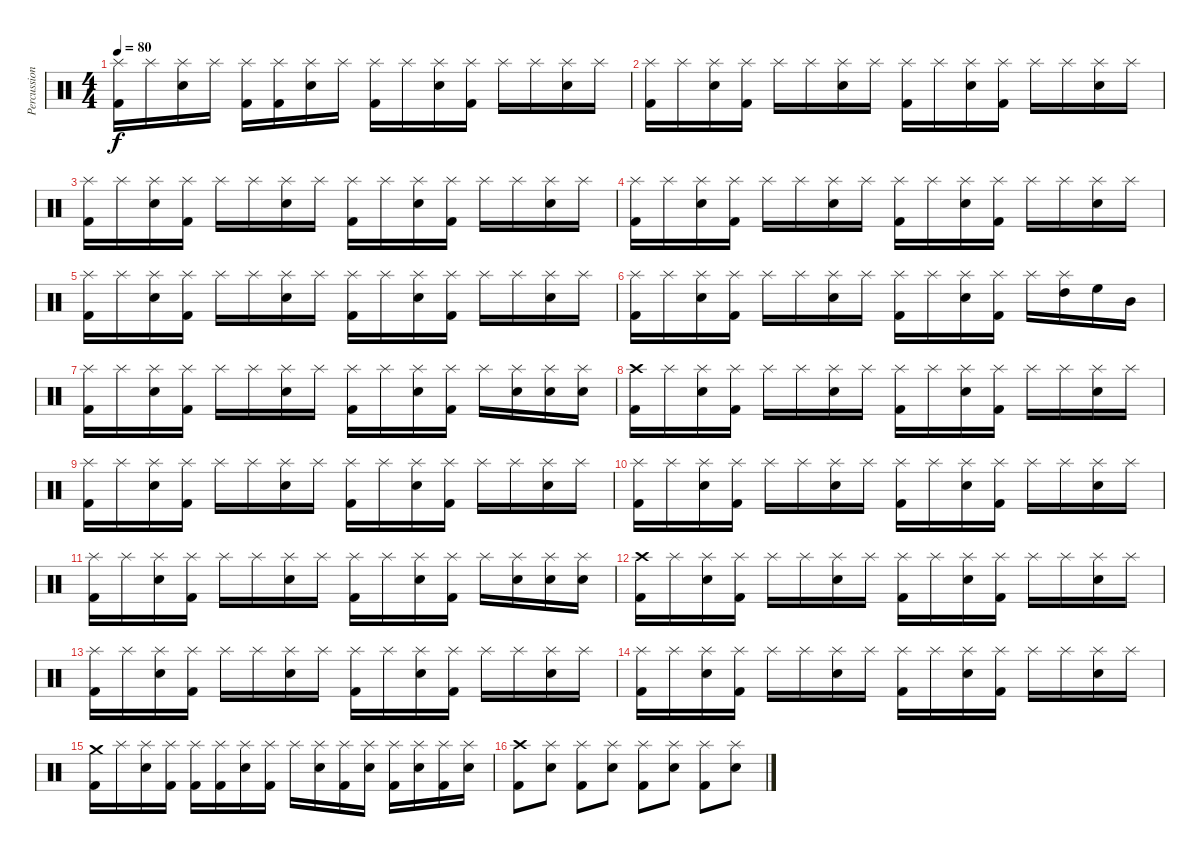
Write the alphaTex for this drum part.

\track ("Percussion" "Percussion") {instrument percussion}
\staff {score}
\articulation defaults
\ts (4 4)
\tempo 80
\clef neutral
\ks c
("Kick (hit) 2" "Splash (hit)").16{dy f} "Splash (hit)".16 ("Snare (hit) 2" "Splash (hit)").16 "Splash (hit)".16 ("Kick (hit) 2" "Splash (hit)").16 ("Kick (hit) 2" "Splash (hit)").16 ("Snare (hit) 2" "Splash (hit)").16 "Splash (hit)".16 ("Kick (hit) 2" "Splash (hit)").16 "Splash (hit)".16 ("Snare (hit) 2" "Splash (hit)").16 ("Kick (hit) 2" "Splash (hit)").16 "Splash (hit)".16 "Splash (hit)".16 ("Snare (hit) 2" "Splash (hit)").16 "Splash (hit)".16 |
("Kick (hit) 2" "Splash (hit)").16 "Splash (hit)".16 ("Snare (hit) 2" "Splash (hit)").16 ("Kick (hit) 2" "Splash (hit)").16 "Splash (hit)".16 "Splash (hit)".16 ("Snare (hit) 2" "Splash (hit)").16 "Splash (hit)".16 ("Kick (hit) 2" "Splash (hit)").16 "Splash (hit)".16 ("Snare (hit) 2" "Splash (hit)").16 ("Kick (hit) 2" "Splash (hit)").16 "Splash (hit)".16 "Splash (hit)".16 ("Snare (hit) 2" "Splash (hit)").16 "Splash (hit)".16 |
("Kick (hit) 2" "Splash (hit)").16 "Splash (hit)".16 ("Snare (hit) 2" "Splash (hit)").16 ("Kick (hit) 2" "Splash (hit)").16 "Splash (hit)".16 "Splash (hit)".16 ("Snare (hit) 2" "Splash (hit)").16 "Splash (hit)".16 ("Kick (hit) 2" "Splash (hit)").16 "Splash (hit)".16 ("Snare (hit) 2" "Splash (hit)").16 ("Kick (hit) 2" "Splash (hit)").16 "Splash (hit)".16 "Splash (hit)".16 ("Snare (hit) 2" "Splash (hit)").16 "Splash (hit)".16 |
("Kick (hit) 2" "Splash (hit)").16 "Splash (hit)".16 ("Snare (hit) 2" "Splash (hit)").16 ("Kick (hit) 2" "Splash (hit)").16 "Splash (hit)".16 "Splash (hit)".16 ("Snare (hit) 2" "Splash (hit)").16 "Splash (hit)".16 ("Kick (hit) 2" "Splash (hit)").16 "Splash (hit)".16 ("Snare (hit) 2" "Splash (hit)").16 ("Kick (hit) 2" "Splash (hit)").16 "Splash (hit)".16 "Splash (hit)".16 ("Snare (hit) 2" "Splash (hit)").16 "Splash (hit)".16 |
("Kick (hit) 2" "Splash (hit)").16 "Splash (hit)".16 ("Snare (hit) 2" "Splash (hit)").16 ("Kick (hit) 2" "Splash (hit)").16 "Splash (hit)".16 "Splash (hit)".16 ("Snare (hit) 2" "Splash (hit)").16 "Splash (hit)".16 ("Kick (hit) 2" "Splash (hit)").16 "Splash (hit)".16 ("Snare (hit) 2" "Splash (hit)").16 ("Kick (hit) 2" "Splash (hit)").16 "Splash (hit)".16 "Splash (hit)".16 ("Snare (hit) 2" "Splash (hit)").16 "Splash (hit)".16 |
("Kick (hit) 2" "Splash (hit)").16 "Splash (hit)".16 ("Snare (hit) 2" "Splash (hit)").16 ("Kick (hit) 2" "Splash (hit)").16 "Splash (hit)".16 "Splash (hit)".16 ("Snare (hit) 2" "Splash (hit)").16 "Splash (hit)".16 ("Kick (hit) 2" "Splash (hit)").16 "Splash (hit)".16 ("Snare (hit) 2" "Splash (hit)").16 ("Kick (hit) 2" "Splash (hit)").16 "Splash (hit)".16 ("High Tom (hit)" "Splash (hit)").16 "High Floor Tom (hit)".16 "Mid Tom (hit)".16 |
("Kick (hit) 2" "Splash (hit)").16 "Splash (hit)".16 ("Snare (hit) 2" "Splash (hit)").16 ("Kick (hit) 2" "Splash (hit)").16 "Splash (hit)".16 "Splash (hit)".16 ("Snare (hit) 2" "Splash (hit)").16 "Splash (hit)".16 ("Kick (hit) 2" "Splash (hit)").16 "Splash (hit)".16 ("Snare (hit) 2" "Splash (hit)").16 ("Kick (hit) 2" "Splash (hit)").16 "Splash (hit)".16 ("Snare (hit) 2" "Splash (hit)").16 ("Snare (hit) 2" "Splash (hit)").16 ("Snare (hit) 2" "Splash (hit)").16 |
("Kick (hit) 2" "Crash high (hit)").16 "Splash (hit)".16 ("Snare (hit) 2" "Splash (hit)").16 ("Kick (hit) 2" "Splash (hit)").16 "Splash (hit)".16 "Splash (hit)".16 ("Snare (hit) 2" "Splash (hit)").16 "Splash (hit)".16 ("Kick (hit) 2" "Splash (hit)").16 "Splash (hit)".16 ("Snare (hit) 2" "Splash (hit)").16 ("Kick (hit) 2" "Splash (hit)").16 "Splash (hit)".16 "Splash (hit)".16 ("Snare (hit) 2" "Splash (hit)").16 "Splash (hit)".16 |
("Kick (hit) 2" "Splash (hit)").16 "Splash (hit)".16 ("Snare (hit) 2" "Splash (hit)").16 ("Kick (hit) 2" "Splash (hit)").16 "Splash (hit)".16 "Splash (hit)".16 ("Snare (hit) 2" "Splash (hit)").16 "Splash (hit)".16 ("Kick (hit) 2" "Splash (hit)").16 "Splash (hit)".16 ("Snare (hit) 2" "Splash (hit)").16 ("Kick (hit) 2" "Splash (hit)").16 "Splash (hit)".16 "Splash (hit)".16 ("Snare (hit) 2" "Splash (hit)").16 "Splash (hit)".16 |
("Kick (hit) 2" "Splash (hit)").16 "Splash (hit)".16 ("Snare (hit) 2" "Splash (hit)").16 ("Kick (hit) 2" "Splash (hit)").16 "Splash (hit)".16 "Splash (hit)".16 ("Snare (hit) 2" "Splash (hit)").16 "Splash (hit)".16 ("Kick (hit) 2" "Splash (hit)").16 "Splash (hit)".16 ("Snare (hit) 2" "Splash (hit)").16 ("Kick (hit) 2" "Splash (hit)").16 "Splash (hit)".16 "Splash (hit)".16 ("Snare (hit) 2" "Splash (hit)").16 "Splash (hit)".16 |
("Kick (hit) 2" "Splash (hit)").16 "Splash (hit)".16 ("Snare (hit) 2" "Splash (hit)").16 ("Kick (hit) 2" "Splash (hit)").16 "Splash (hit)".16 "Splash (hit)".16 ("Snare (hit) 2" "Splash (hit)").16 "Splash (hit)".16 ("Kick (hit) 2" "Splash (hit)").16 "Splash (hit)".16 ("Snare (hit) 2" "Splash (hit)").16 ("Kick (hit) 2" "Splash (hit)").16 "Splash (hit)".16 ("Snare (hit) 2" "Splash (hit)").16 ("Snare (hit) 2" "Splash (hit)").16 ("Snare (hit) 2" "Splash (hit)").16 |
("Kick (hit) 2" "Crash high (hit)").16 "Splash (hit)".16 ("Snare (hit) 2" "Splash (hit)").16 ("Kick (hit) 2" "Splash (hit)").16 "Splash (hit)".16 "Splash (hit)".16 ("Snare (hit) 2" "Splash (hit)").16 "Splash (hit)".16 ("Kick (hit) 2" "Splash (hit)").16 "Splash (hit)".16 ("Snare (hit) 2" "Splash (hit)").16 ("Kick (hit) 2" "Splash (hit)").16 "Splash (hit)".16 "Splash (hit)".16 ("Snare (hit) 2" "Splash (hit)").16 "Splash (hit)".16 |
("Kick (hit) 2" "Splash (hit)").16 "Splash (hit)".16 ("Snare (hit) 2" "Splash (hit)").16 ("Kick (hit) 2" "Splash (hit)").16 "Splash (hit)".16 "Splash (hit)".16 ("Snare (hit) 2" "Splash (hit)").16 "Splash (hit)".16 ("Kick (hit) 2" "Splash (hit)").16 "Splash (hit)".16 ("Snare (hit) 2" "Splash (hit)").16 ("Kick (hit) 2" "Splash (hit)").16 "Splash (hit)".16 "Splash (hit)".16 ("Snare (hit) 2" "Splash (hit)").16 "Splash (hit)".16 |
("Kick (hit) 2" "Splash (hit)").16 "Splash (hit)".16 ("Snare (hit) 2" "Splash (hit)").16 ("Kick (hit) 2" "Splash (hit)").16 "Splash (hit)".16 "Splash (hit)".16 ("Snare (hit) 2" "Splash (hit)").16 "Splash (hit)".16 ("Kick (hit) 2" "Splash (hit)").16 "Splash (hit)".16 ("Snare (hit) 2" "Splash (hit)").16 ("Kick (hit) 2" "Splash (hit)").16 "Splash (hit)".16 "Splash (hit)".16 ("Snare (hit) 2" "Splash (hit)").16 "Splash (hit)".16 |
("Kick (hit) 2" "Crash medium (hit)").16 "Splash (hit)".16 ("Snare (hit) 2" "Splash (hit)").16 ("Kick (hit) 2" "Splash (hit)").16 ("Kick (hit) 2" "Splash (hit)").16 ("Kick (hit) 2" "Splash (hit)").16 ("Snare (hit) 2" "Splash (hit)").16 ("Kick (hit) 2" "Splash (hit)").16 "Splash (hit)".16 ("Snare (hit) 2" "Splash (hit)").16 ("Kick (hit) 2" "Splash (hit)").16 ("Snare (hit) 2" "Splash (hit)").16 ("Kick (hit) 2" "Splash (hit)").16 ("Snare (hit) 2" "Splash (hit)").16 ("Kick (hit) 2" "Splash (hit)").16 ("Snare (hit) 2" "Splash (hit)").16 |
("Kick (hit) 2" "Crash high (hit)").8 ("Snare (hit) 2" "Splash (hit)").8 ("Kick (hit) 2" "Splash (hit)").8 ("Snare (hit) 2" "Splash (hit)").8 ("Kick (hit) 2" "Splash (hit)").8 ("Snare (hit) 2" "Splash (hit)").8 ("Kick (hit) 2" "Splash (hit)").8 ("Snare (hit) 2" "Splash (hit)").8
